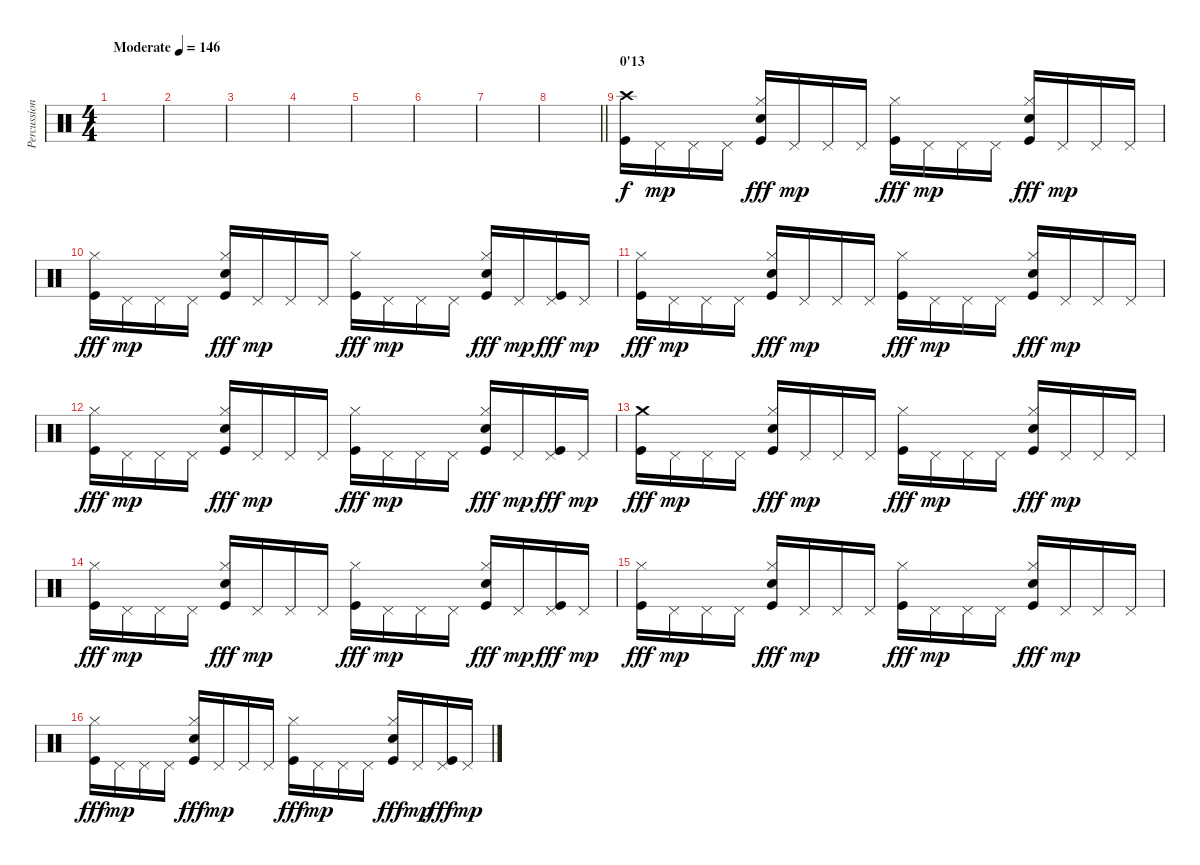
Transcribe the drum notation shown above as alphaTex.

\track ("Percussions" "Percussion") {instrument percussion}
\staff {score}
\articulation defaults
\ts (4 4)
\tempo (146 "Moderate")
\clef neutral
\ks c
|
|
|
|
|
|
|
\barLineRight lightlight
|
\section ("" "0'13")
("Crash high (hit)" "Kick (hit)").16 "Pedal Hi-Hat (hit)".16{dy mp} "Pedal Hi-Hat (hit)".16 "Pedal Hi-Hat (hit)".16 ("Hi-Hat (closed)" "Electric Snare (hit)" "Kick (hit)").16{dy fff} "Pedal Hi-Hat (hit)".16{dy mp} "Pedal Hi-Hat (hit)".16 "Pedal Hi-Hat (hit)".16 ("Hi-Hat (closed)" "Kick (hit)").16{dy fff} "Pedal Hi-Hat (hit)".16{dy mp} "Pedal Hi-Hat (hit)".16 "Pedal Hi-Hat (hit)".16 ("Hi-Hat (closed)" "Electric Snare (hit)" "Kick (hit)").16{dy fff} "Pedal Hi-Hat (hit)".16{dy mp} "Pedal Hi-Hat (hit)".16 "Pedal Hi-Hat (hit)".16 |
("Hi-Hat (closed)" "Kick (hit)").16{dy fff} "Pedal Hi-Hat (hit)".16{dy mp} "Pedal Hi-Hat (hit)".16 "Pedal Hi-Hat (hit)".16 ("Hi-Hat (closed)" "Electric Snare (hit)" "Kick (hit)").16{dy fff} "Pedal Hi-Hat (hit)".16{dy mp} "Pedal Hi-Hat (hit)".16 "Pedal Hi-Hat (hit)".16 ("Hi-Hat (closed)" "Kick (hit)").16{dy fff} "Pedal Hi-Hat (hit)".16{dy mp} "Pedal Hi-Hat (hit)".16 "Pedal Hi-Hat (hit)".16 ("Hi-Hat (closed)" "Electric Snare (hit)" "Kick (hit)").16{dy fff} "Pedal Hi-Hat (hit)".16{dy mp} ("Pedal Hi-Hat (hit)" "Kick (hit)").16{dy fff} "Pedal Hi-Hat (hit)".16{dy mp} |
("Hi-Hat (closed)" "Kick (hit)").16{dy fff} "Pedal Hi-Hat (hit)".16{dy mp} "Pedal Hi-Hat (hit)".16 "Pedal Hi-Hat (hit)".16 ("Hi-Hat (closed)" "Electric Snare (hit)" "Kick (hit)").16{dy fff} "Pedal Hi-Hat (hit)".16{dy mp} "Pedal Hi-Hat (hit)".16 "Pedal Hi-Hat (hit)".16 ("Hi-Hat (closed)" "Kick (hit)").16{dy fff} "Pedal Hi-Hat (hit)".16{dy mp} "Pedal Hi-Hat (hit)".16 "Pedal Hi-Hat (hit)".16 ("Hi-Hat (closed)" "Electric Snare (hit)" "Kick (hit)").16{dy fff} "Pedal Hi-Hat (hit)".16{dy mp} "Pedal Hi-Hat (hit)".16 "Pedal Hi-Hat (hit)".16 |
("Hi-Hat (closed)" "Kick (hit)").16{dy fff} "Pedal Hi-Hat (hit)".16{dy mp} "Pedal Hi-Hat (hit)".16 "Pedal Hi-Hat (hit)".16 ("Hi-Hat (closed)" "Electric Snare (hit)" "Kick (hit)").16{dy fff} "Pedal Hi-Hat (hit)".16{dy mp} "Pedal Hi-Hat (hit)".16 "Pedal Hi-Hat (hit)".16 ("Hi-Hat (closed)" "Kick (hit)").16{dy fff} "Pedal Hi-Hat (hit)".16{dy mp} "Pedal Hi-Hat (hit)".16 "Pedal Hi-Hat (hit)".16 ("Hi-Hat (closed)" "Electric Snare (hit)" "Kick (hit)").16{dy fff} "Pedal Hi-Hat (hit)".16{dy mp} ("Pedal Hi-Hat (hit)" "Kick (hit)").16{dy fff} "Pedal Hi-Hat (hit)".16{dy mp} |
("Crash medium (hit)" "Kick (hit)").16{dy fff} "Pedal Hi-Hat (hit)".16{dy mp} "Pedal Hi-Hat (hit)".16 "Pedal Hi-Hat (hit)".16 ("Hi-Hat (closed)" "Electric Snare (hit)" "Kick (hit)").16{dy fff} "Pedal Hi-Hat (hit)".16{dy mp} "Pedal Hi-Hat (hit)".16 "Pedal Hi-Hat (hit)".16 ("Hi-Hat (closed)" "Kick (hit)").16{dy fff} "Pedal Hi-Hat (hit)".16{dy mp} "Pedal Hi-Hat (hit)".16 "Pedal Hi-Hat (hit)".16 ("Hi-Hat (closed)" "Electric Snare (hit)" "Kick (hit)").16{dy fff} "Pedal Hi-Hat (hit)".16{dy mp} "Pedal Hi-Hat (hit)".16 "Pedal Hi-Hat (hit)".16 |
("Hi-Hat (closed)" "Kick (hit)").16{dy fff} "Pedal Hi-Hat (hit)".16{dy mp} "Pedal Hi-Hat (hit)".16 "Pedal Hi-Hat (hit)".16 ("Hi-Hat (closed)" "Electric Snare (hit)" "Kick (hit)").16{dy fff} "Pedal Hi-Hat (hit)".16{dy mp} "Pedal Hi-Hat (hit)".16 "Pedal Hi-Hat (hit)".16 ("Hi-Hat (closed)" "Kick (hit)").16{dy fff} "Pedal Hi-Hat (hit)".16{dy mp} "Pedal Hi-Hat (hit)".16 "Pedal Hi-Hat (hit)".16 ("Hi-Hat (closed)" "Electric Snare (hit)" "Kick (hit)").16{dy fff} "Pedal Hi-Hat (hit)".16{dy mp} ("Pedal Hi-Hat (hit)" "Kick (hit)").16{dy fff} "Pedal Hi-Hat (hit)".16{dy mp} |
("Hi-Hat (closed)" "Kick (hit)").16{dy fff} "Pedal Hi-Hat (hit)".16{dy mp} "Pedal Hi-Hat (hit)".16 "Pedal Hi-Hat (hit)".16 ("Hi-Hat (closed)" "Electric Snare (hit)" "Kick (hit)").16{dy fff} "Pedal Hi-Hat (hit)".16{dy mp} "Pedal Hi-Hat (hit)".16 "Pedal Hi-Hat (hit)".16 ("Hi-Hat (closed)" "Kick (hit)").16{dy fff} "Pedal Hi-Hat (hit)".16{dy mp} "Pedal Hi-Hat (hit)".16 "Pedal Hi-Hat (hit)".16 ("Hi-Hat (closed)" "Electric Snare (hit)" "Kick (hit)").16{dy fff} "Pedal Hi-Hat (hit)".16{dy mp} "Pedal Hi-Hat (hit)".16 "Pedal Hi-Hat (hit)".16 |
("Hi-Hat (closed)" "Kick (hit)").16{dy fff} "Pedal Hi-Hat (hit)".16{dy mp} "Pedal Hi-Hat (hit)".16 "Pedal Hi-Hat (hit)".16 ("Hi-Hat (closed)" "Electric Snare (hit)" "Kick (hit)").16{dy fff} "Pedal Hi-Hat (hit)".16{dy mp} "Pedal Hi-Hat (hit)".16 "Pedal Hi-Hat (hit)".16 ("Hi-Hat (closed)" "Kick (hit)").16{dy fff} "Pedal Hi-Hat (hit)".16{dy mp} "Pedal Hi-Hat (hit)".16 "Pedal Hi-Hat (hit)".16 ("Hi-Hat (closed)" "Electric Snare (hit)" "Kick (hit)").16{dy fff} "Pedal Hi-Hat (hit)".16{dy mp} ("Pedal Hi-Hat (hit)" "Kick (hit)").16{dy fff} "Pedal Hi-Hat (hit)".16{dy mp}
